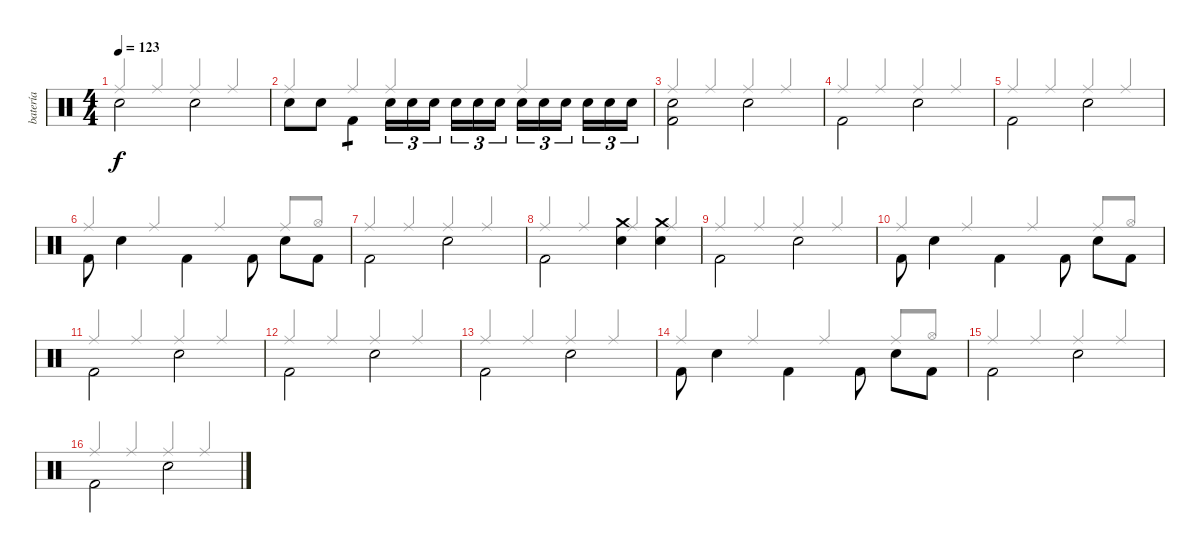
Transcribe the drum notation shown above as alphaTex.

\track ("batería" "batería") {instrument percussion}
\staff {score}
\articulation defaults
\voice
\ts (4 4)
\tempo 123
\clef neutral
\ks c "Snare (hit) 2".2{dy f beam Down} "Snare (hit) 2".2{beam Down}
|
"Snare (hit) 2".8{beam Down} "Snare (hit) 2".8{beam Down} "Kick (hit) 2".4{tp 1 beam Down} "Snare (hit) 2".16{tu (3 2) beam Down} "Snare (hit) 2".16{tu (3 2) beam Down} "Snare (hit) 2".16{tu (3 2) beam Down beam splitsecondary} "Snare (hit) 2".16{tu (3 2) beam Down} "Snare (hit) 2".16{tu (3 2) beam Down} "Snare (hit) 2".16{tu (3 2) beam Down} "Snare (hit) 2".16{tu (3 2) beam Down} "Snare (hit) 2".16{tu (3 2) beam Down} "Snare (hit) 2".16{tu (3 2) beam Down beam splitsecondary} "Snare (hit) 2".16{tu (3 2) beam Down} "Snare (hit) 2".16{tu (3 2) beam Down} "Snare (hit) 2".16{tu (3 2) beam Down} |
("Kick (hit) 2" "Snare (hit)").2{beam Down} "Snare (hit) 2".2{beam Down} |
"Kick (hit) 2".2{beam Down} "Snare (hit) 2".2{beam Down} |
"Kick (hit) 2".2{beam Down} "Snare (hit) 2".2{beam Down} |
"Kick (hit) 2".8{beam Down} "Snare (hit) 2".4{beam Down} "Kick (hit) 2".4{beam Down} "Kick (hit) 2".8{beam Down} "Snare (hit) 2".8{beam Down} "Kick (hit) 2".8{beam Down} |
"Kick (hit) 2".2{beam Down} "Snare (hit) 2".2{beam Down} |
"Kick (hit) 2".2{beam Down} ("Snare (hit) 2" "Crash medium (hit)").4{beam Down} ("Snare (hit) 2" "Crash medium (hit)").4{beam Down} |
"Kick (hit) 2".2{beam Down} "Snare (hit) 2".2{beam Down} |
"Kick (hit) 2".8{beam Down} "Snare (hit) 2".4{beam Down} "Kick (hit) 2".4{beam Down} "Kick (hit) 2".8{beam Down} "Snare (hit) 2".8{beam Down} "Kick (hit) 2".8{beam Down} |
"Kick (hit) 2".2{beam Down} "Snare (hit) 2".2{beam Down} |
"Kick (hit) 2".2{beam Down} "Snare (hit) 2".2{beam Down} |
"Kick (hit) 2".2{beam Down} "Snare (hit) 2".2{beam Down} |
"Kick (hit) 2".8{beam Down} "Snare (hit) 2".4{beam Down} "Kick (hit) 2".4{beam Down} "Kick (hit) 2".8{beam Down} "Snare (hit) 2".8{beam Down} "Kick (hit) 2".8{beam Down} |
"Kick (hit) 2".2{beam Down} "Snare (hit) 2".2{beam Down} |
"Kick (hit) 2".2{beam Down} "Snare (hit) 2".2{beam Down}
\voice
\clef neutral
\ottava regular
\simile none
\ks c "Ride (middle)".4{dy f beam Up} "Ride (middle)".4{beam Up} "Ride (middle)".4{beam Up} "Ride (middle)".4{beam Up}
|
"Ride (middle)".4{beam Up} "Ride (middle)".4{beam Up} "Ride (middle)".4{beam Up} "Ride (middle)".4{beam Up} |
"Ride (middle)".4{beam Up} "Ride (middle)".4{beam Up} "Ride (middle)".4{beam Up} "Ride (middle)".4{beam Up} |
"Ride (middle)".4{beam Up} "Ride (middle)".4{beam Up} "Ride (middle)".4{beam Up} "Ride (middle)".4{beam Up} |
"Ride (middle)".4{beam Up} "Ride (middle)".4{beam Up} "Ride (middle)".4{beam Up} "Ride (middle)".4{beam Up} |
"Ride (middle)".4{beam Up} "Ride (middle)".4{beam Up} "Ride (middle)".4{beam Up} "Ride (middle)".8{beam Up} "Hi-Hat (open)".8{beam Up} |
"Ride (middle)".4{beam Up} "Ride (middle)".4{beam Up} "Ride (middle)".4{beam Up} "Ride (middle)".4{beam Up} |
"Ride (middle)".4{beam Up} "Ride (middle)".4{beam Up} "Ride (middle)".4{beam Up} "Ride (middle)".4{beam Up} |
"Ride (middle)".4{beam Up} "Ride (middle)".4{beam Up} "Ride (middle)".4{beam Up} "Ride (middle)".4{beam Up} |
"Ride (middle)".4{beam Up} "Ride (middle)".4{beam Up} "Ride (middle)".4{beam Up} "Ride (middle)".8{beam Up} "Hi-Hat (open)".8{beam Up} |
"Ride (middle)".4{beam Up} "Ride (middle)".4{beam Up} "Ride (middle)".4{beam Up} "Ride (middle)".4{beam Up} |
"Ride (middle)".4{beam Up} "Ride (middle)".4{beam Up} "Ride (middle)".4{beam Up} "Ride (middle)".4{beam Up} |
"Ride (middle)".4{beam Up} "Ride (middle)".4{beam Up} "Ride (middle)".4{beam Up} "Ride (middle)".4{beam Up} |
"Ride (middle)".4{beam Up} "Ride (middle)".4{beam Up} "Ride (middle)".4{beam Up} "Ride (middle)".8{beam Up} "Hi-Hat (open)".8{beam Up} |
"Ride (middle)".4{beam Up} "Ride (middle)".4{beam Up} "Ride (middle)".4{beam Up} "Ride (middle)".4{beam Up} |
"Ride (middle)".4{beam Up} "Ride (middle)".4{beam Up} "Ride (middle)".4{beam Up} "Ride (middle)".4{beam Up}
